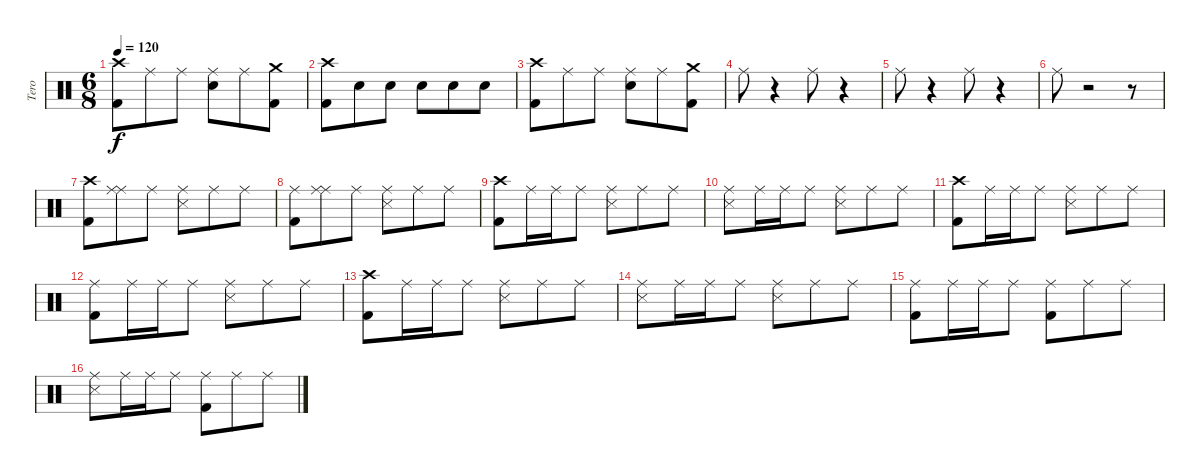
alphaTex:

\track ("Tero" "Tero") {instrument percussion}
\staff {score}
\articulation defaults
\ts (6 8)
\tempo 120
\clef neutral
\ks c
("Crash high (hit)" "Kick (hit) 2").8{dy f} "Ride (middle)".8 "Ride (middle)".8 ("Ride (middle)" "Snare (hit) 2").8 "Ride (middle)".8 ("Kick (hit) 2" "Crash medium (hit)").8 |
("Kick (hit) 2" "Crash high (hit)").8 "Snare (hit) 2".8 "Snare (hit) 2".8 "Snare (hit) 2".8 "Snare (hit) 2".8 "Snare (hit) 2".8 |
("Crash high (hit)" "Kick (hit) 2").8 "Ride (middle)".8 "Ride (middle)".8 ("Ride (middle)" "Snare (hit) 2").8 "Ride (middle)".8 ("Crash medium (hit)" "Kick (hit) 2").8 |
"Ride (middle)".8 r.4 "Ride (middle)".8 r.4 |
"Ride (middle)".8 r.4 "Ride (middle)".8 r.4 |
"Ride (middle)".8 r.2 r.8 |
("Crash high (hit)" "Kick (hit) 2").8 ("Ride (middle)" "Ride (middle)").8 "Ride (middle)".8 ("Snare (side stick) 3" "Ride (middle)").8 "Ride (middle)".8 "Ride (middle)".8 |
("Ride (middle)" "Kick (hit) 2").8 ("Ride (middle)" "Ride (middle)").8 "Ride (middle)".8 ("Snare (side stick) 3" "Ride (middle)").8 "Ride (middle)".8 "Ride (middle)".8 |
("Crash high (hit)" "Kick (hit) 2").8 "Ride (middle)".16 "Ride (middle)".16 "Ride (middle)".8 ("Snare (side stick) 3" "Ride (middle)").8 "Ride (middle)".8 "Ride (middle)".8 |
("Snare (side stick) 3" "Ride (middle)").8 "Ride (middle)".16 "Ride (middle)".16 "Ride (middle)".8 ("Snare (side stick) 3" "Ride (middle)").8 "Ride (middle)".8 "Ride (middle)".8 |
("Crash high (hit)" "Kick (hit) 2").8 "Ride (middle)".16 "Ride (middle)".16 "Ride (middle)".8 ("Snare (side stick) 3" "Ride (middle)").8 "Ride (middle)".8 "Ride (middle)".8 |
("Ride (middle)" "Kick (hit) 2").8 "Ride (middle)".16 "Ride (middle)".16 "Ride (middle)".8 ("Snare (side stick) 3" "Ride (middle)").8 "Ride (middle)".8 "Ride (middle)".8 |
("Crash high (hit)" "Kick (hit) 2").8 "Ride (middle)".16 "Ride (middle)".16 "Ride (middle)".8 ("Snare (side stick) 3" "Ride (middle)").8 "Ride (middle)".8 "Ride (middle)".8 |
("Snare (side stick) 3" "Ride (middle)").8 "Ride (middle)".16 "Ride (middle)".16 "Ride (middle)".8 ("Snare (side stick) 3" "Ride (middle)").8 "Ride (middle)".8 "Ride (middle)".8 |
("Kick (hit) 2" "Ride (middle)").8 "Ride (middle)".16 "Ride (middle)".16 "Ride (middle)".8 ("Kick (hit) 2" "Ride (middle)").8 "Ride (middle)".8 "Ride (middle)".8 |
("Snare (side stick) 3" "Ride (middle)").8 "Ride (middle)".16 "Ride (middle)".16 "Ride (middle)".8 ("Kick (hit) 2" "Ride (middle)").8 "Ride (middle)".8 "Ride (middle)".8
